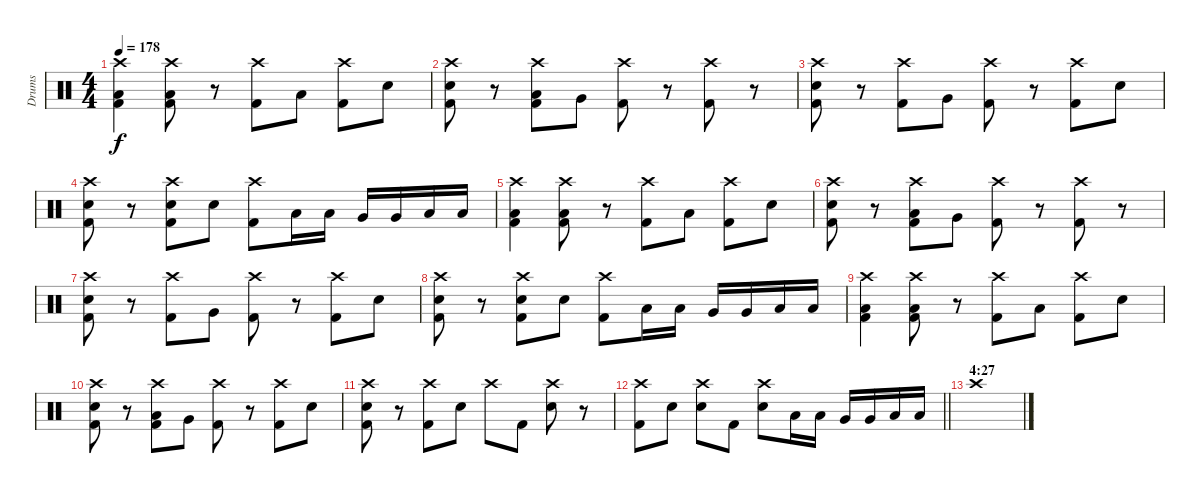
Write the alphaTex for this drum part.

\track ("Drums" "Drums") {instrument percussion}
\staff {score}
\articulation defaults
\ts (4 4)
\tempo 178
\clef neutral
\ks c
("Crash high (hit)" "Low Floor Tom (hit)" "Kick (hit) 2").4{dy f} ("Crash high (hit)" "Low Floor Tom (hit)" "Kick (hit) 2").8 r.8 ("Crash high (hit)" "Kick (hit) 2").8 "Low Floor Tom (hit)".8 ("Crash high (hit)" "Kick (hit) 2").8 "Electric Snare (hit)".8 |
("Crash high (hit)" "Electric Snare (hit)" "Kick (hit) 2").8 r.8 ("Crash high (hit)" "Low Floor Tom (hit)" "Kick (hit) 2").8 "Very Low Tom (hit)".8 ("Crash high (hit)" "Kick (hit) 2").8 r.8 ("Crash high (hit)" "Kick (hit) 2").8 r.8 |
("Crash high (hit)" "Electric Snare (hit)" "Kick (hit) 2").8 r.8 ("Crash high (hit)" "Kick (hit) 2").8 "Very Low Tom (hit)".8 ("Crash high (hit)" "Kick (hit) 2").8 r.8 ("Crash high (hit)" "Kick (hit) 2").8 "Electric Snare (hit)".8 |
("Crash high (hit)" "Electric Snare (hit)" "Kick (hit) 2").8 r.8 ("Crash high (hit)" "Electric Snare (hit)" "Kick (hit) 2").8 "Electric Snare (hit)".8 ("Crash high (hit)" "Kick (hit) 2").8 "Low Floor Tom (hit)".16 "Low Floor Tom (hit)".16 "Very Low Tom (hit)".16 "Very Low Tom (hit)".16 "Low Floor Tom (hit)".16 "Low Floor Tom (hit)".16 |
("Crash high (hit)" "Low Floor Tom (hit)" "Kick (hit) 2").4 ("Crash high (hit)" "Low Floor Tom (hit)" "Kick (hit) 2").8 r.8 ("Crash high (hit)" "Kick (hit) 2").8 "Low Floor Tom (hit)".8 ("Crash high (hit)" "Kick (hit) 2").8 "Electric Snare (hit)".8 |
("Crash high (hit)" "Electric Snare (hit)" "Kick (hit) 2").8 r.8 ("Crash high (hit)" "Low Floor Tom (hit)" "Kick (hit) 2").8 "Very Low Tom (hit)".8 ("Crash high (hit)" "Kick (hit) 2").8 r.8 ("Crash high (hit)" "Kick (hit) 2").8 r.8 |
("Crash high (hit)" "Electric Snare (hit)" "Kick (hit) 2").8 r.8 ("Crash high (hit)" "Kick (hit) 2").8 "Very Low Tom (hit)".8 ("Crash high (hit)" "Kick (hit) 2").8 r.8 ("Crash high (hit)" "Kick (hit) 2").8 "Electric Snare (hit)".8 |
("Crash high (hit)" "Electric Snare (hit)" "Kick (hit) 2").8 r.8 ("Crash high (hit)" "Electric Snare (hit)" "Kick (hit) 2").8 "Electric Snare (hit)".8 ("Crash high (hit)" "Kick (hit) 2").8 "Low Floor Tom (hit)".16 "Low Floor Tom (hit)".16 "Very Low Tom (hit)".16 "Very Low Tom (hit)".16 "Low Floor Tom (hit)".16 "Low Floor Tom (hit)".16 |
("Crash high (hit)" "Low Floor Tom (hit)" "Kick (hit) 2").4 ("Crash high (hit)" "Low Floor Tom (hit)" "Kick (hit) 2").8 r.8 ("Crash high (hit)" "Kick (hit) 2").8 "Low Floor Tom (hit)".8 ("Crash high (hit)" "Kick (hit) 2").8 "Electric Snare (hit)".8 |
("Crash high (hit)" "Electric Snare (hit)" "Kick (hit) 2").8 r.8 ("Crash high (hit)" "Low Floor Tom (hit)" "Kick (hit) 2").8 "Very Low Tom (hit)".8 ("Crash high (hit)" "Kick (hit) 2").8 r.8 ("Crash high (hit)" "Kick (hit) 2").8 "Electric Snare (hit)".8 |
("Crash high (hit)" "Electric Snare (hit)" "Kick (hit) 2").8 r.8 ("Crash high (hit)" "Kick (hit) 2").8 "Electric Snare (hit)".8 "Crash high (hit)".8 "Kick (hit) 2".8 ("Crash high (hit)" "Electric Snare (hit)").8 r.8 |
\barLineRight lightlight
("Crash high (hit)" "Kick (hit) 2").8 "Electric Snare (hit)".8 ("Crash high (hit)" "Electric Snare (hit)").8 "Kick (hit) 2".8 ("Crash high (hit)" "Electric Snare (hit)").8 "Low Floor Tom (hit)".16 "Low Floor Tom (hit)".16 "Very Low Tom (hit)".16 "Very Low Tom (hit)".16 "Low Floor Tom (hit)".16 "Low Floor Tom (hit)".16 |
\section ("" "4:27")
"Crash high (hit)".1
